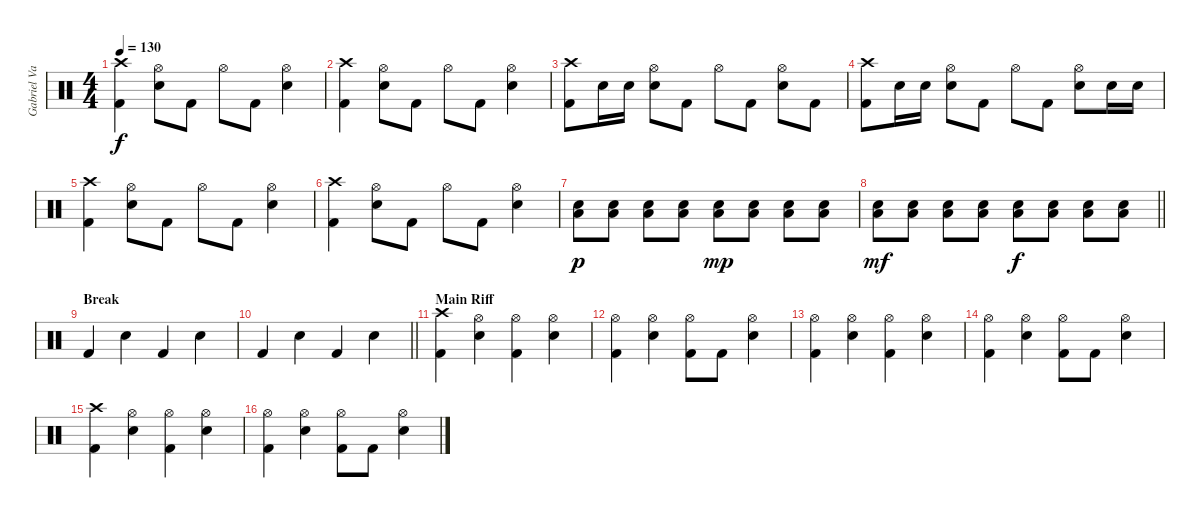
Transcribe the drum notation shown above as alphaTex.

\track ("Gabriel Valerio" "Gabriel Va") {instrument percussion}
\staff {score}
\articulation defaults
\ts (4 4)
\tempo 130
\clef neutral
\ks c
("Crash high (hit)" "Kick (hit) 2").4{dy f} ("Hi-Hat (open)" "Snare (hit) 2").8 "Kick (hit) 2".8 "Hi-Hat (open)".8 "Kick (hit) 2".8 ("Hi-Hat (open)" "Snare (hit) 2").4 |
("Crash high (hit)" "Kick (hit) 2").4 ("Hi-Hat (open)" "Snare (hit) 2").8 "Kick (hit) 2".8 "Hi-Hat (open)".8 "Kick (hit) 2".8 ("Hi-Hat (open)" "Snare (hit) 2").4 |
("Crash high (hit)" "Kick (hit) 2").8 "Snare (hit) 2".16 "Snare (hit) 2".16 ("Hi-Hat (open)" "Snare (hit) 2").8 "Kick (hit) 2".8 "Hi-Hat (open)".8 "Kick (hit) 2".8 ("Hi-Hat (open)" "Snare (hit) 2").8 "Kick (hit) 2".8 |
("Crash high (hit)" "Kick (hit) 2").8 "Snare (hit) 2".16 "Snare (hit) 2".16 ("Hi-Hat (open)" "Snare (hit) 2").8 "Kick (hit) 2".8 "Hi-Hat (open)".8 "Kick (hit) 2".8 ("Hi-Hat (open)" "Snare (hit) 2").8 "Snare (hit) 2".16 "Snare (hit) 2".16 |
("Crash high (hit)" "Kick (hit) 2").4 ("Hi-Hat (open)" "Snare (hit) 2").8 "Kick (hit) 2".8 "Hi-Hat (open)".8 "Kick (hit) 2".8 ("Hi-Hat (open)" "Snare (hit) 2").4 |
("Crash high (hit)" "Kick (hit) 2").4 ("Hi-Hat (open)" "Snare (hit) 2").8 "Kick (hit) 2".8 "Hi-Hat (open)".8 "Kick (hit) 2".8 ("Hi-Hat (open)" "Snare (hit) 2").4 |
("Low Tom (hit)" "Snare (hit) 2").8{dy p} ("Low Tom (hit)" "Snare (hit) 2").8 ("Low Tom (hit)" "Snare (hit) 2").8 ("Low Tom (hit)" "Snare (hit) 2").8 ("Low Tom (hit)" "Snare (hit) 2").8{dy mp} ("Low Tom (hit)" "Snare (hit) 2").8 ("Low Tom (hit)" "Snare (hit) 2").8 ("Low Tom (hit)" "Snare (hit) 2").8 |
\barLineRight lightlight
("Low Tom (hit)" "Snare (hit) 2").8{dy mf} ("Low Tom (hit)" "Snare (hit) 2").8 ("Low Tom (hit)" "Snare (hit) 2").8 ("Low Tom (hit)" "Snare (hit) 2").8 ("Low Tom (hit)" "Snare (hit) 2").8{dy f} ("Low Tom (hit)" "Snare (hit) 2").8 ("Low Tom (hit)" "Snare (hit) 2").8 ("Low Tom (hit)" "Snare (hit) 2").8 |
\section ("" "Break")
"Kick (hit) 2".4 "Snare (hit) 2".4 "Kick (hit) 2".4 "Snare (hit) 2".4 |
\barLineRight lightlight "Kick (hit) 2".4 "Snare (hit) 2".4 "Kick (hit) 2".4 "Snare (hit) 2".4
|
\section ("" "Main Riff")
("Crash high (hit)" "Kick (hit) 2").4 ("Hi-Hat (open)" "Snare (hit) 2").4 ("Hi-Hat (open)" "Kick (hit) 2").4 ("Hi-Hat (open)" "Snare (hit) 2").4 |
("Hi-Hat (open)" "Kick (hit) 2").4 ("Hi-Hat (open)" "Snare (hit) 2").4 ("Hi-Hat (open)" "Kick (hit) 2").8 "Kick (hit) 2".8 ("Hi-Hat (open)" "Snare (hit) 2").4 |
("Hi-Hat (open)" "Kick (hit) 2").4 ("Hi-Hat (open)" "Snare (hit) 2").4 ("Hi-Hat (open)" "Kick (hit) 2").4 ("Hi-Hat (open)" "Snare (hit) 2").4 |
("Hi-Hat (open)" "Kick (hit) 2").4 ("Hi-Hat (open)" "Snare (hit) 2").4 ("Hi-Hat (open)" "Kick (hit) 2").8 "Kick (hit) 2".8 ("Hi-Hat (open)" "Snare (hit) 2").4 |
("Crash high (hit)" "Kick (hit) 2").4 ("Hi-Hat (open)" "Snare (hit) 2").4 ("Hi-Hat (open)" "Kick (hit) 2").4 ("Hi-Hat (open)" "Snare (hit) 2").4 |
("Hi-Hat (open)" "Kick (hit) 2").4 ("Hi-Hat (open)" "Snare (hit) 2").4 ("Hi-Hat (open)" "Kick (hit) 2").8 "Kick (hit) 2".8 ("Hi-Hat (open)" "Snare (hit) 2").4
